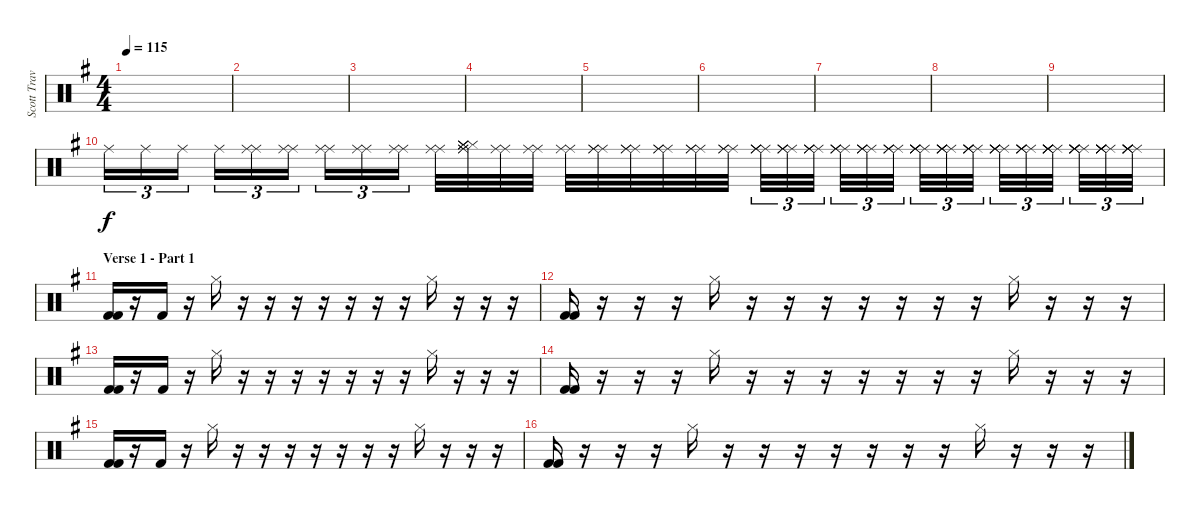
\track ("Scott Travis" "Scott Trav") {instrument percussion}
\staff {score}
\articulation defaults
\ts (4 4)
\tempo 115
\clef neutral
\ks eminor
|
|
|
|
|
|
|
|
|
"Ride (middle)".16{tu (3 2)} "Ride (middle)".16{tu (3 2)} "Ride (middle)".16{tu (3 2)} "Ride (middle)".16{tu (3 2)} ("Ride (middle)" "Ride (middle)").16{tu (3 2)} ("Ride (middle)" "Ride (middle)").16{tu (3 2)} ("Ride (middle)" "Ride (middle)").16{tu (3 2)} ("Ride (middle)" "Ride (middle)").16{tu (3 2)} ("Ride (middle)" "Ride (middle)").16{tu (3 2)} ("Ride (middle)" "Ride (middle)").32 ("Hi-Hat (closed)" "Hi-Hat (closed)" "Ride (middle)" "Ride (middle)" "Hi-Hat (closed)" "Hi-Hat (closed)").32 ("Ride (middle)" "Ride (middle)").32 ("Ride (middle)" "Ride (middle)").32 ("Ride (middle)" "Ride (middle)").32 ("Ride (middle)" "Ride (middle)" "Ride (middle)").32 ("Ride (middle)" "Ride (middle)" "Ride (middle)").32 ("Ride (middle)" "Ride (middle)" "Ride (middle)").32 ("Ride (middle)" "Ride (middle)" "Ride (middle)").32 ("Ride (middle)" "Ride (middle)" "Ride (middle)").32 ("Ride (middle)" "Ride (middle)" "Ride (middle)" "Ride (middle)").32{tu (3 2)} ("Ride (middle)" "Ride (middle)" "Ride (middle)" "Ride (middle)").32{tu (3 2)} ("Ride (middle)" "Ride (middle)" "Ride (middle)" "Ride (middle)").32{tu (3 2)} ("Ride (middle)" "Ride (middle)" "Ride (middle)" "Ride (middle)").32{tu (3 2)} ("Ride (middle)" "Ride (middle)" "Ride (middle)" "Ride (middle)").32{tu (3 2)} ("Ride (middle)" "Ride (middle)" "Ride (middle)" "Ride (middle)").32{tu (3 2)} ("Ride (middle)" "Ride (middle)" "Ride (middle)" "Ride (middle)" "Ride (middle)").32{tu (3 2)} ("Ride (middle)" "Ride (middle)" "Ride (middle)" "Ride (middle)" "Ride (middle)").32{tu (3 2)} ("Ride (middle)" "Ride (middle)" "Ride (middle)" "Ride (middle)" "Ride (middle)").32{tu (3 2)} ("Ride (middle)" "Ride (middle)" "Ride (middle)" "Ride (middle)" "Ride (middle)").32{tu (3 2)} ("Ride (middle)" "Ride (middle)" "Ride (middle)" "Ride (middle)" "Ride (middle)").32{tu (3 2)} ("Ride (middle)" "Ride (middle)" "Ride (middle)" "Ride (middle)" "Ride (middle)" "Ride (middle)").32{tu (3 2)} ("Ride (middle)" "Ride (middle)" "Ride (middle)" "Ride (middle)" "Ride (middle)" "Ride (middle)").32{tu (3 2)} ("Ride (middle)" "Ride (middle)" "Ride (middle)" "Ride (middle)" "Ride (middle)" "Ride (middle)").32{tu (3 2)} ("Ride (middle)" "Ride (middle)" "Ride (middle)" "Ride (middle)" "Ride (middle)" "Ride (middle)").32{tu (3 2)} |
\section ("" "Verse 1 - Part 1")
("Kick (hit) 2" "Kick (hit) 2").16 r.16 "Kick (hit) 2".16 r.16 "Hi-Hat (closed)".16 r.16 r.16 r.16 r.16 r.16 r.16 r.16 "Hi-Hat (closed)".16 r.16 r.16 r.16 |
("Kick (hit) 2" "Kick (hit) 2").16 r.16 r.16 r.16 "Hi-Hat (closed)".16 r.16 r.16 r.16 r.16 r.16 r.16 r.16 "Hi-Hat (closed)".16 r.16 r.16 r.16 |
("Kick (hit) 2" "Kick (hit) 2").16 r.16 "Kick (hit) 2".16 r.16 "Hi-Hat (closed)".16 r.16 r.16 r.16 r.16 r.16 r.16 r.16 "Hi-Hat (closed)".16 r.16 r.16 r.16 |
("Kick (hit) 2" "Kick (hit) 2").16 r.16 r.16 r.16 "Hi-Hat (closed)".16 r.16 r.16 r.16 r.16 r.16 r.16 r.16 "Hi-Hat (closed)".16 r.16 r.16 r.16 |
("Kick (hit) 2" "Kick (hit) 2").16 r.16 "Kick (hit) 2".16 r.16 "Hi-Hat (closed)".16 r.16 r.16 r.16 r.16 r.16 r.16 r.16 "Hi-Hat (closed)".16 r.16 r.16 r.16 |
("Kick (hit) 2" "Kick (hit) 2").16 r.16 r.16 r.16 "Hi-Hat (closed)".16 r.16 r.16 r.16 r.16 r.16 r.16 r.16 "Hi-Hat (closed)".16 r.16 r.16 r.16
